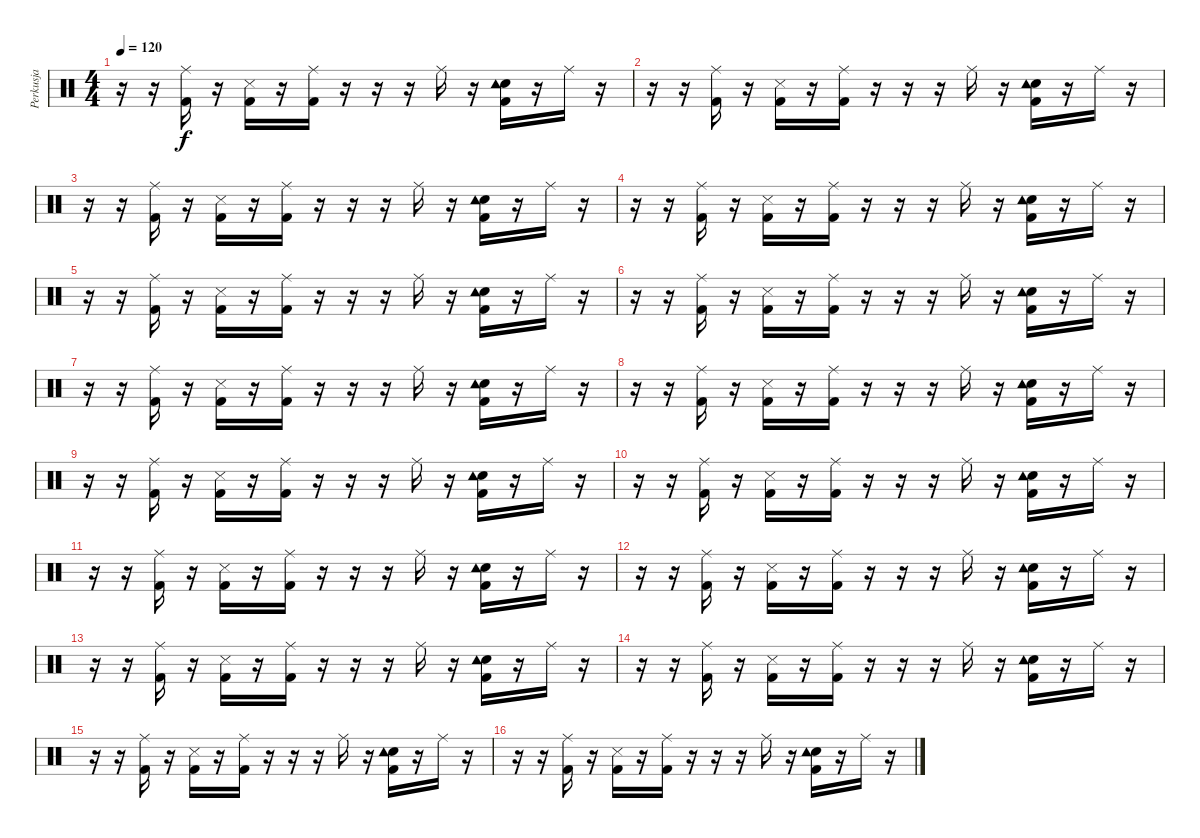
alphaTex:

\track ("Perkusja" "Perkusja") {instrument percussion}
\staff {score}
\articulation defaults
\ts (4 4)
\tempo 120
\clef neutral
\ks c
r.16{dy f} r.16 ("Kick (hit) 2" "Ride (middle)").16 r.16 ("Snare (side stick) 3" "Kick (hit) 2").16 r.16 ("Kick (hit) 2" "Ride (middle)").16 r.16 r.16 r.16 "Ride (middle)".16 r.16 ("Electric Snare (hit)" "Tambourine (hit)" "Kick (hit) 2").16 r.16 "Ride (middle)".16 r.16 |
r.16 r.16 ("Kick (hit) 2" "Ride (middle)").16 r.16 ("Snare (side stick) 3" "Kick (hit) 2").16 r.16 ("Kick (hit) 2" "Ride (middle)").16 r.16 r.16 r.16 "Ride (middle)".16 r.16 ("Electric Snare (hit)" "Tambourine (hit)" "Kick (hit) 2").16 r.16 "Ride (middle)".16 r.16 |
r.16 r.16 ("Kick (hit) 2" "Ride (middle)").16 r.16 ("Snare (side stick) 3" "Kick (hit) 2").16 r.16 ("Kick (hit) 2" "Ride (middle)").16 r.16 r.16 r.16 "Ride (middle)".16 r.16 ("Electric Snare (hit)" "Tambourine (hit)" "Kick (hit) 2").16 r.16 "Ride (middle)".16 r.16 |
r.16 r.16 ("Kick (hit) 2" "Ride (middle)").16 r.16 ("Snare (side stick) 3" "Kick (hit) 2").16 r.16 ("Kick (hit) 2" "Ride (middle)").16 r.16 r.16 r.16 "Ride (middle)".16 r.16 ("Electric Snare (hit)" "Tambourine (hit)" "Kick (hit) 2").16 r.16 "Ride (middle)".16 r.16 |
r.16 r.16 ("Kick (hit) 2" "Ride (middle)").16 r.16 ("Snare (side stick) 3" "Kick (hit) 2").16 r.16 ("Kick (hit) 2" "Ride (middle)").16 r.16 r.16 r.16 "Ride (middle)".16 r.16 ("Electric Snare (hit)" "Tambourine (hit)" "Kick (hit) 2").16{volume 8} r.16 "Ride (middle)".16 r.16 |
r.16 r.16 ("Kick (hit) 2" "Ride (middle)").16 r.16 ("Snare (side stick) 3" "Kick (hit) 2").16 r.16 ("Kick (hit) 2" "Ride (middle)").16 r.16 r.16 r.16 "Ride (middle)".16 r.16 ("Electric Snare (hit)" "Tambourine (hit)" "Kick (hit) 2").16 r.16 "Ride (middle)".16 r.16 |
r.16 r.16 ("Kick (hit) 2" "Ride (middle)").16 r.16 ("Snare (side stick) 3" "Kick (hit) 2").16 r.16 ("Kick (hit) 2" "Ride (middle)").16 r.16 r.16 r.16 "Ride (middle)".16 r.16 ("Electric Snare (hit)" "Tambourine (hit)" "Kick (hit) 2").16 r.16 "Ride (middle)".16 r.16 |
r.16 r.16 ("Kick (hit) 2" "Ride (middle)").16 r.16 ("Snare (side stick) 3" "Kick (hit) 2").16 r.16 ("Kick (hit) 2" "Ride (middle)").16 r.16 r.16 r.16 "Ride (middle)".16 r.16 ("Electric Snare (hit)" "Tambourine (hit)" "Kick (hit) 2").16 r.16 "Ride (middle)".16 r.16 |
r.16 r.16 ("Kick (hit) 2" "Ride (middle)").16 r.16 ("Snare (side stick) 3" "Kick (hit) 2").16 r.16 ("Kick (hit) 2" "Ride (middle)").16 r.16 r.16 r.16 "Ride (middle)".16 r.16 ("Electric Snare (hit)" "Tambourine (hit)" "Kick (hit) 2").16 r.16 "Ride (middle)".16 r.16 |
r.16 r.16 ("Kick (hit) 2" "Ride (middle)").16 r.16 ("Snare (side stick) 3" "Kick (hit) 2").16 r.16 ("Kick (hit) 2" "Ride (middle)").16 r.16 r.16 r.16 "Ride (middle)".16 r.16 ("Electric Snare (hit)" "Tambourine (hit)" "Kick (hit) 2").16 r.16 "Ride (middle)".16 r.16 |
r.16 r.16 ("Kick (hit) 2" "Ride (middle)").16 r.16 ("Snare (side stick) 3" "Kick (hit) 2").16 r.16 ("Kick (hit) 2" "Ride (middle)").16 r.16 r.16 r.16 "Ride (middle)".16 r.16 ("Electric Snare (hit)" "Tambourine (hit)" "Kick (hit) 2").16{volume 8} r.16 "Ride (middle)".16 r.16 |
r.16 r.16 ("Kick (hit) 2" "Ride (middle)").16 r.16 ("Snare (side stick) 3" "Kick (hit) 2").16 r.16 ("Kick (hit) 2" "Ride (middle)").16 r.16 r.16 r.16 "Ride (middle)".16 r.16 ("Electric Snare (hit)" "Tambourine (hit)" "Kick (hit) 2").16 r.16 "Ride (middle)".16 r.16 |
r.16 r.16 ("Kick (hit) 2" "Ride (middle)").16 r.16 ("Snare (side stick) 3" "Kick (hit) 2").16 r.16 ("Kick (hit) 2" "Ride (middle)").16 r.16 r.16 r.16 "Ride (middle)".16 r.16 ("Electric Snare (hit)" "Tambourine (hit)" "Kick (hit) 2").16 r.16 "Ride (middle)".16 r.16 |
r.16 r.16 ("Kick (hit) 2" "Ride (middle)").16 r.16 ("Snare (side stick) 3" "Kick (hit) 2").16 r.16 ("Kick (hit) 2" "Ride (middle)").16 r.16 r.16 r.16 "Ride (middle)".16 r.16 ("Electric Snare (hit)" "Tambourine (hit)" "Kick (hit) 2").16 r.16 "Ride (middle)".16 r.16 |
r.16 r.16 ("Kick (hit) 2" "Ride (middle)").16 r.16 ("Snare (side stick) 3" "Kick (hit) 2").16 r.16 ("Kick (hit) 2" "Ride (middle)").16 r.16 r.16 r.16 "Ride (middle)".16 r.16 ("Electric Snare (hit)" "Tambourine (hit)" "Kick (hit) 2").16 r.16 "Ride (middle)".16 r.16 |
r.16 r.16 ("Kick (hit) 2" "Ride (middle)").16 r.16 ("Snare (side stick) 3" "Kick (hit) 2").16 r.16 ("Kick (hit) 2" "Ride (middle)").16 r.16 r.16 r.16 "Ride (middle)".16 r.16 ("Electric Snare (hit)" "Tambourine (hit)" "Kick (hit) 2").16 r.16 "Ride (middle)".16 r.16
